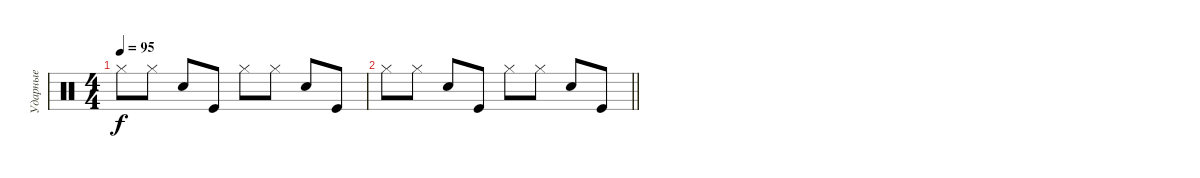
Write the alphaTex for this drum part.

\track ("Ударные" "Ударные") {instrument percussion}
\staff {score}
\articulation defaults
\ts (4 4)
\tempo 95
\clef neutral
\ks c "Hi-Hat (closed)".8{dy f} "Hi-Hat (closed)".8 "Snare (hit) 2".8 "Kick (hit)".8 "Hi-Hat (closed)".8 "Hi-Hat (closed)".8 "Snare (hit) 2".8 "Kick (hit)".8
|
\barLineRight lightlight "Hi-Hat (closed)".8 "Hi-Hat (closed)".8 "Snare (hit) 2".8 "Kick (hit)".8 "Hi-Hat (closed)".8 "Hi-Hat (closed)".8 "Snare (hit) 2".8 "Kick (hit)".8
